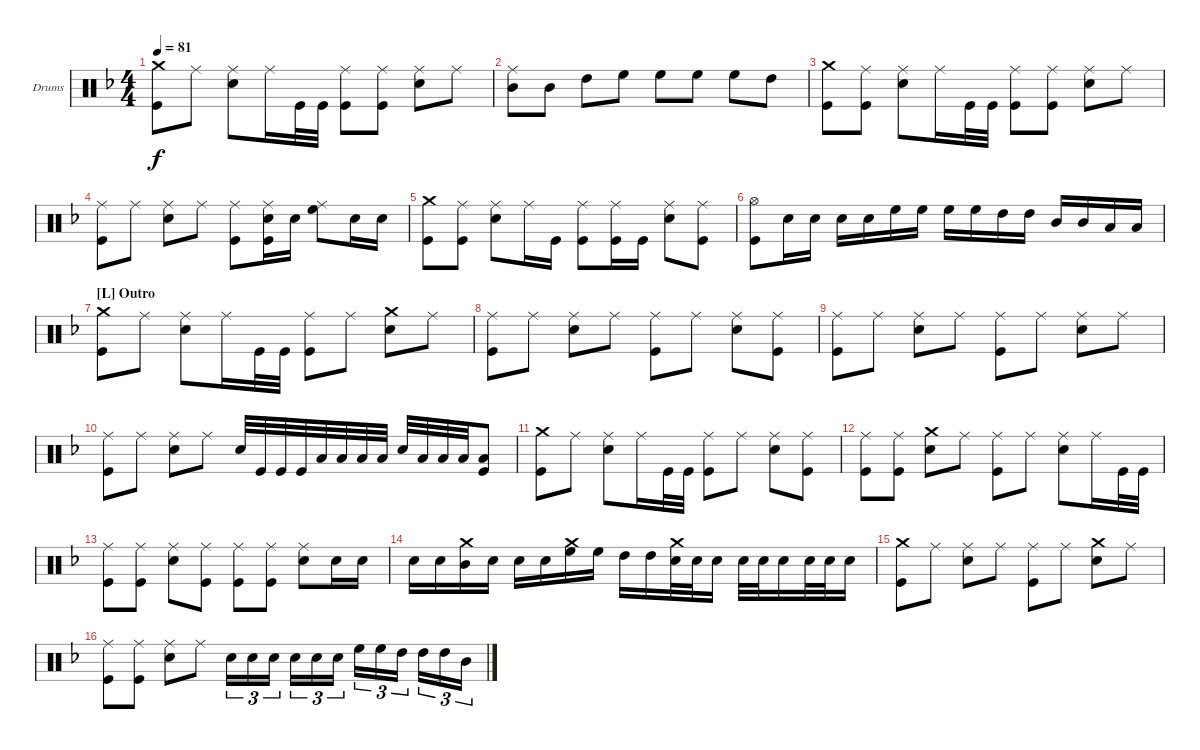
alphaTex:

\bracketExtendMode groupsimilarinstruments
\firstSystemTrackNameOrientation horizontal
\otherSystemsTrackNameOrientation horizontal
\track ("Vinny Appice" "Drums") {instrument percussion}
\staff {score}
\articulation defaults
\ts (4 4)
\tempo 81
\clef neutral
\ks dminor
("Crash medium (hit)" "Kick (hit)").8{dy f} "Ride (middle)".8 ("Ride (middle)" "Snare (hit) 2").8 "Ride (middle)".16 "Kick (hit)".32 "Kick (hit)".32 ("Ride (middle)" "Kick (hit)").8 ("Ride (middle)" "Kick (hit)").8 ("Ride (middle)" "Snare (hit) 2").8 "Ride (middle)".8 |
("Ride (middle)" "Mid Tom (hit)").8 "Mid Tom (hit)".8 "High Tom (hit)".8 "High Floor Tom (hit)".8 "High Floor Tom (hit)".8 "High Floor Tom (hit)".8 "High Floor Tom (hit)".8 "High Tom (hit)".8 |
("Kick (hit)" "Crash medium (hit)").8 ("Ride (middle)" "Kick (hit)").8 ("Ride (middle)" "Snare (hit) 2").8 "Ride (middle)".16 "Kick (hit)".32 "Kick (hit)".32 ("Ride (middle)" "Kick (hit)").8 ("Ride (middle)" "Kick (hit)").8 ("Ride (middle)" "Snare (hit) 2").8 "Ride (middle)".8 |
("Ride (middle)" "Kick (hit)").8 "Ride (middle)".8 ("Ride (middle)" "Snare (hit) 2").8 "Ride (middle)".8 ("Ride (middle)" "Kick (hit)").8 ("Kick (hit)" "Snare (hit) 2" "Ride (middle)").16 "Snare (hit) 2".16 ("High Floor Tom (hit)" "Ride (middle)").8 "Snare (hit) 2".16 "Snare (hit) 2".16 |
("Kick (hit)" "Crash medium (hit)").8 ("Ride (middle)" "Kick (hit)").8 ("Ride (middle)" "Snare (hit) 2").8 "Ride (middle)".16 "Kick (hit)".16 ("Ride (middle)" "Kick (hit)").8 ("Ride (middle)" "Kick (hit)").16 "Kick (hit)".16 ("Ride (middle)" "Snare (hit) 2").8 ("Ride (middle)" "Kick (hit)").8 |
("Hi-Hat (open)" "Kick (hit)").8 "Snare (hit) 2".16 "Snare (hit) 2".16 "Snare (hit) 2".16 "Snare (hit) 2".16 "High Floor Tom (hit)".16 "High Floor Tom (hit)".16 "High Floor Tom (hit)".16 "High Floor Tom (hit)".16 "High Tom (hit)".16 "High Tom (hit)".16 "Mid Tom (hit)".16 "Mid Tom (hit)".16 "Low Tom (hit)".16 "Low Tom (hit)".16 |
\section ("L" "Outro")
("Crash medium (hit)" "Kick (hit)").8 "Ride (middle)".8 ("Ride (middle)" "Snare (hit) 2").8 "Ride (middle)".16 "Kick (hit)".32 "Kick (hit)".32 ("Kick (hit)" "Ride (middle)").8 "Ride (middle)".8 ("Crash medium (hit)" "Snare (hit) 2").8 "Ride (middle)".8 |
("Ride (middle)" "Kick (hit)").8 "Ride (middle)".8 ("Ride (middle)" "Snare (hit) 2").8 "Ride (middle)".8 ("Ride (middle)" "Kick (hit)").8 "Ride (middle)".8 ("Ride (middle)" "Snare (hit) 2").8 ("Ride (middle)" "Kick (hit)").8 |
("Ride (middle)" "Kick (hit)").8 "Ride (middle)".8 ("Ride (middle)" "Snare (hit) 2").8 "Ride (middle)".8 ("Ride (middle)" "Kick (hit)").8 "Ride (middle)".8 ("Ride (middle)" "Snare (hit) 2").8 "Ride (middle)".8 |
("Ride (middle)" "Kick (hit)").8 "Ride (middle)".8 ("Ride (middle)" "Snare (hit) 2").8 "Ride (middle)".8 "Snare (hit) 2".32 "Kick (hit)".32 "Kick (hit)".32 "Kick (hit)".32 "Low Tom (hit)".32 "Low Tom (hit)".32 "Low Tom (hit)".32 "Low Tom (hit)".32 "Snare (hit) 2".32 "Low Tom (hit)".32 "Low Tom (hit)".32 "Low Tom (hit)".32 ("Kick (hit)" "Low Tom (hit)").8 |
("Crash medium (hit)" "Kick (hit)").8 "Ride (middle)".8 ("Ride (middle)" "Snare (hit) 2").8 "Ride (middle)".16 "Kick (hit)".32 "Kick (hit)".32 ("Ride (middle)" "Kick (hit)").8 "Ride (middle)".8 ("Ride (middle)" "Snare (hit) 2").8 ("Kick (hit)" "Ride (middle)").8 |
("Kick (hit)" "Ride (middle)").8 ("Ride (middle)" "Kick (hit)").8 ("Crash medium (hit)" "Snare (hit) 2").8 "Ride (middle)".8 ("Ride (middle)" "Kick (hit)").8 "Ride (middle)".8 ("Ride (middle)" "Snare (hit) 2").8 "Ride (middle)".16 "Kick (hit)".32 "Kick (hit)".32 |
("Ride (middle)" "Kick (hit)").8 ("Ride (middle)" "Kick (hit)").8 ("Ride (middle)" "Snare (hit) 2").8 ("Ride (middle)" "Kick (hit)").8 ("Ride (middle)" "Kick (hit)").8 ("Ride (middle)" "Kick (hit)").8 ("Ride (middle)" "Snare (hit) 2").8 "Snare (hit) 2".16 "Snare (hit) 2".16 |
"Snare (hit) 2".16 "Snare (hit) 2".16 ("Crash medium (hit)" "Mid Tom (hit)").16 "Snare (hit) 2".16 "Snare (hit) 2".16 "Snare (hit) 2".16 ("High Floor Tom (hit)" "Crash medium (hit)").16 "High Floor Tom (hit)".16 "High Tom (hit)".16 "High Tom (hit)".16 ("Snare (hit) 2" "Crash medium (hit)").32 "Snare (hit) 2".32 "Snare (hit) 2".16 "Snare (hit) 2".32 "Snare (hit) 2".32 "Snare (hit) 2".16 "Snare (hit) 2".32 "Snare (hit) 2".32 "Snare (hit) 2".16 |
("Crash medium (hit)" "Kick (hit)").8 "Ride (middle)".8 ("Ride (middle)" "Snare (hit) 2").8 "Ride (middle)".8 ("Ride (middle)" "Kick (hit)").8 "Ride (middle)".8 ("Crash medium (hit)" "Snare (hit) 2").8 "Ride (middle)".8 |
("Kick (hit)" "Ride (middle)").8 ("Ride (middle)" "Kick (hit)").8 ("Ride (middle)" "Snare (hit) 2").8 "Ride (middle)".8 "Snare (hit) 2".16{tu (3 2)} "Snare (hit) 2".16{tu (3 2)} "Snare (hit) 2".16{tu (3 2)} "Snare (hit) 2".16{tu (3 2)} "Snare (hit) 2".16{tu (3 2)} "Snare (hit) 2".16{tu (3 2)} "High Floor Tom (hit)".16{tu (3 2)} "High Floor Tom (hit)".16{tu (3 2)} "High Tom (hit)".16{tu (3 2)} "High Tom (hit)".16{tu (3 2)} "High Tom (hit)".16{tu (3 2)} "Mid Tom (hit)".16{tu (3 2)}
